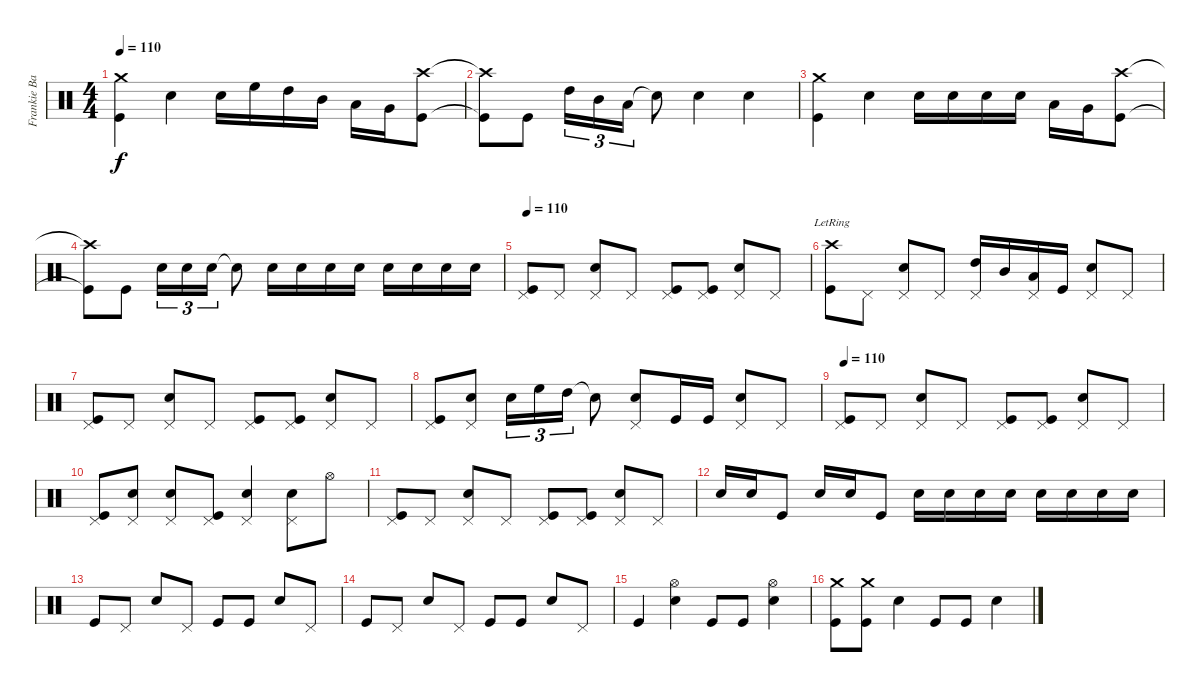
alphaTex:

\track ("Frankie Banali/Drums" "Frankie Ba") {instrument percussion}
\staff {score}
\articulation defaults
\ts (4 4)
\tempo 110
\clef neutral
\ks c
("Crash medium (hit)" "Kick (hit)").4{dy f} "Snare (hit) 2".4 "Snare (hit) 2".16 "High Floor Tom (hit)".16 "High Tom (hit)".16 "Mid Tom (hit)".16 "Low Tom (hit)".16 "Very Low Tom (hit)".16 ("Kick (hit)" "Crash high (hit)").8 |
("Kick (hit)"{t} "Crash high (hit)"{t}).8 "Kick (hit)".8 "High Tom (hit)".16{tu (3 2)} "Mid Tom (hit)".16{tu (3 2)} "Low Tom (hit)".16{tu (3 2)} "Snare (hit) 2"{t}.8 "Snare (hit) 2".4 "Snare (hit) 2".4 |
("Crash medium (hit)" "Kick (hit)").4 "Snare (hit) 2".4 "Snare (hit) 2".16 "Snare (hit) 2".16 "Snare (hit) 2".16 "Snare (hit) 2".16 "Low Tom (hit)".16 "Very Low Tom (hit)".16 ("Kick (hit)" "Crash high (hit)").8 |
("Kick (hit)"{t} "Crash high (hit)"{t}).8 "Kick (hit)".8 "Snare (hit) 2".16{tu (3 2)} "Snare (hit) 2".16{tu (3 2)} "Snare (hit) 2".16{tu (3 2)} "Snare (hit) 2"{t}.8 "Snare (hit) 2".16 "Snare (hit) 2".16 "Snare (hit) 2".16 "Snare (hit) 2".16 "Snare (hit) 2".16 "Snare (hit) 2".16 "Snare (hit) 2".16 "Snare (hit) 2".16 |
\tempo 110
("Kick (hit)" "Pedal Hi-Hat (hit)").8 "Pedal Hi-Hat (hit)".8 ("Snare (hit) 2" "Pedal Hi-Hat (hit)").8 "Pedal Hi-Hat (hit)".8 ("Kick (hit)" "Pedal Hi-Hat (hit)").8 ("Kick (hit)" "Pedal Hi-Hat (hit)").8 ("Snare (hit) 2" "Pedal Hi-Hat (hit)").8 "Pedal Hi-Hat (hit)".8 |
("Kick (hit)" "Crash high (hit)"{lr}).8 "Pedal Hi-Hat (hit)".8 ("Snare (hit) 2" "Pedal Hi-Hat (hit)").8 "Pedal Hi-Hat (hit)".8 ("High Tom (hit)" "Pedal Hi-Hat (hit)").16 "Mid Tom (hit)".16 ("Low Tom (hit)" "Pedal Hi-Hat (hit)").16 "Kick (hit)".16 ("Snare (hit) 2" "Pedal Hi-Hat (hit)").8 "Pedal Hi-Hat (hit)".8 |
("Kick (hit)" "Pedal Hi-Hat (hit)").8 "Pedal Hi-Hat (hit)".8 ("Snare (hit) 2" "Pedal Hi-Hat (hit)").8 "Pedal Hi-Hat (hit)".8 ("Kick (hit)" "Pedal Hi-Hat (hit)").8 ("Kick (hit)" "Pedal Hi-Hat (hit)").8 ("Snare (hit) 2" "Pedal Hi-Hat (hit)").8 "Pedal Hi-Hat (hit)".8 |
("Kick (hit)" "Pedal Hi-Hat (hit)").8 ("Snare (hit) 2" "Pedal Hi-Hat (hit)").8 "Snare (hit) 2".16{tu (3 2)} "High Floor Tom (hit)".16{tu (3 2)} "High Tom (hit)".16{tu (3 2)} "Snare (hit)"{t}.8 ("Snare (hit) 2" "Pedal Hi-Hat (hit)").8 "Kick (hit)".16 "Kick (hit)".16 ("Snare (hit) 2" "Pedal Hi-Hat (hit)").8 "Pedal Hi-Hat (hit)".8 |
\tempo 110
("Kick (hit)" "Pedal Hi-Hat (hit)").8 "Pedal Hi-Hat (hit)".8 ("Snare (hit) 2" "Pedal Hi-Hat (hit)").8 "Pedal Hi-Hat (hit)".8 ("Kick (hit)" "Pedal Hi-Hat (hit)").8 ("Kick (hit)" "Pedal Hi-Hat (hit)").8 ("Snare (hit) 2" "Pedal Hi-Hat (hit)").8 "Pedal Hi-Hat (hit)".8 |
("Kick (hit)" "Pedal Hi-Hat (hit)").8 ("Snare (hit) 2" "Pedal Hi-Hat (hit)").8 ("Snare (hit) 2" "Pedal Hi-Hat (hit)").8 ("Kick (hit)" "Pedal Hi-Hat (hit)").8 ("Snare (hit) 2" "Pedal Hi-Hat (hit)").4 ("Snare (hit) 2" "Pedal Hi-Hat (hit)").8 "Hi-Hat (open)".8 |
("Kick (hit)" "Pedal Hi-Hat (hit)").8 "Pedal Hi-Hat (hit)".8 ("Snare (hit) 2" "Pedal Hi-Hat (hit)").8 "Pedal Hi-Hat (hit)".8 ("Kick (hit)" "Pedal Hi-Hat (hit)").8 ("Kick (hit)" "Pedal Hi-Hat (hit)").8 ("Snare (hit) 2" "Pedal Hi-Hat (hit)").8 "Pedal Hi-Hat (hit)".8 |
"Snare (hit) 2".16 "Snare (hit) 2".16 "Kick (hit)".8 "Snare (hit) 2".16 "Snare (hit) 2".16 "Kick (hit)".8 "Snare (hit) 2".16 "Snare (hit) 2".16 "Snare (hit) 2".16 "Snare (hit) 2".16 "Snare (hit) 2".16 "Snare (hit) 2".16 "Snare (hit) 2".16 "Snare (hit) 2".16 |
"Kick (hit)".8 "Pedal Hi-Hat (hit)".8 "Snare (hit) 2".8 "Pedal Hi-Hat (hit)".8 "Kick (hit)".8 "Kick (hit)".8 "Snare (hit) 2".8 "Pedal Hi-Hat (hit)".8 |
"Kick (hit)".8 "Pedal Hi-Hat (hit)".8 "Snare (hit) 2".8 "Pedal Hi-Hat (hit)".8 "Kick (hit)".8 "Kick (hit)".8 "Snare (hit) 2".8 "Pedal Hi-Hat (hit)".8 |
"Kick (hit)".4 ("Snare (hit) 2" "Hi-Hat (open)").4 "Kick (hit)".8 "Kick (hit)".8 ("Snare (hit) 2" "Hi-Hat (open)").4 |
("Kick (hit)" "Crash medium (hit)").8 ("Kick (hit)" "Crash medium (hit)").8 "Snare (hit) 2".4 "Kick (hit)".8 "Kick (hit)".8 "Snare (hit) 2".4
